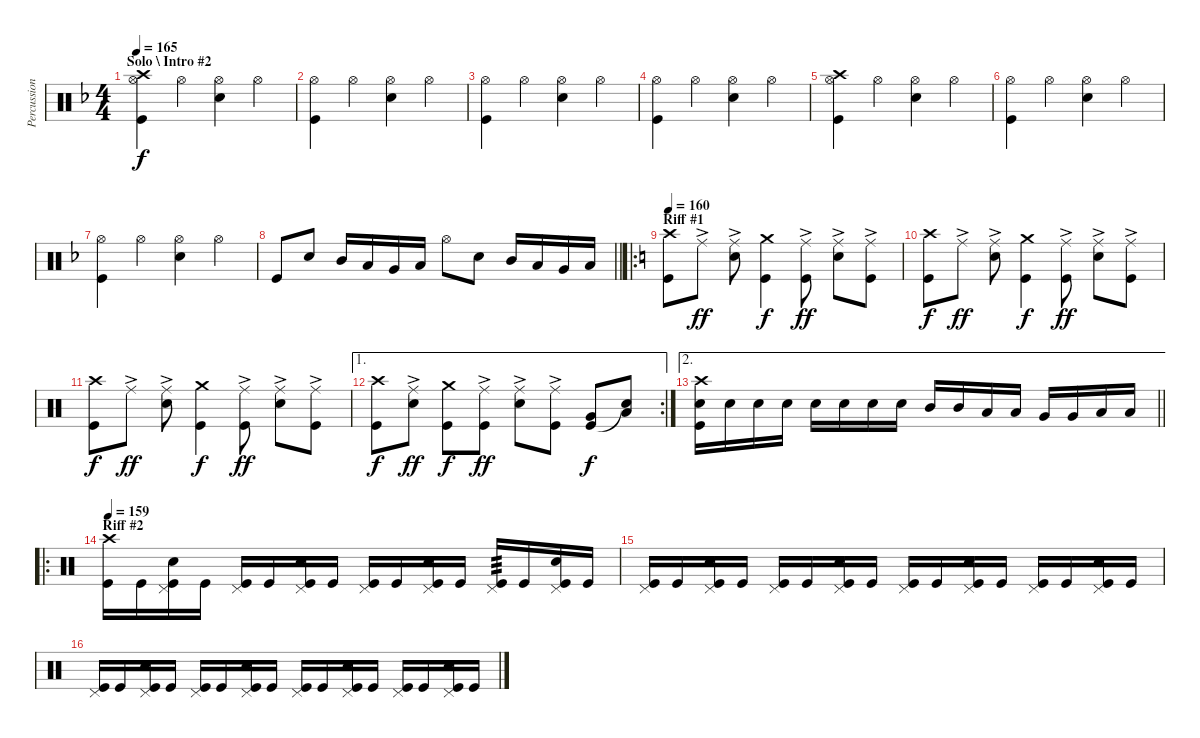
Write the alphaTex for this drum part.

\track ("Percussion" "Percussion") {instrument percussion}
\staff {score}
\articulation defaults
\ts (4 4)
\section ("" "Solo \\ Intro #2")
\tempo 165
\clef neutral
\ks f
("Crash high (hit)" "Hi-Hat (open)" "Kick (hit)").4{dy f} "Hi-Hat (open)".4 ("Hi-Hat (open)" "Electric Snare (hit)").4 "Hi-Hat (open)".4 |
("Hi-Hat (open)" "Kick (hit)").4 "Hi-Hat (open)".4 ("Hi-Hat (open)" "Electric Snare (hit)").4 "Hi-Hat (open)".4 |
("Hi-Hat (open)" "Kick (hit)").4 "Hi-Hat (open)".4 ("Hi-Hat (open)" "Electric Snare (hit)").4 "Hi-Hat (open)".4 |
("Hi-Hat (open)" "Kick (hit)").4 "Hi-Hat (open)".4 ("Hi-Hat (open)" "Electric Snare (hit)").4 "Hi-Hat (open)".4 |
("Crash high (hit)" "Hi-Hat (open)" "Kick (hit)").4 "Hi-Hat (open)".4 ("Hi-Hat (open)" "Electric Snare (hit)").4 "Hi-Hat (open)".4 |
("Hi-Hat (open)" "Kick (hit)").4 "Hi-Hat (open)".4 ("Hi-Hat (open)" "Electric Snare (hit)").4 "Hi-Hat (open)".4 |
("Hi-Hat (open)" "Kick (hit)").4 "Hi-Hat (open)".4 ("Hi-Hat (open)" "Electric Snare (hit)").4 "Hi-Hat (open)".4 |
\barLineRight lightlight "Kick (hit)".8 "Electric Snare (hit)".8 "Mid Tom (hit)".16 "Low Tom (hit)".16 "Very Low Tom (hit)".16 "Low Floor Tom (hit)".16 "Hi-Hat (open)".8 "Electric Snare (hit)".8 "Mid Tom (hit)".16 "Low Tom (hit)".16 "Very Low Tom (hit)".16 "Low Floor Tom (hit)".16
|
\ro
\section ("" "Riff #1")
\tempo 160
\ks c
("Crash high (hit)" "Kick (hit)").8 "Ride (middle)"{ac}.8{dy ff} ("Ride (middle)"{ac} "Electric Snare (hit)").8 ("Crash medium (hit)" "Kick (hit)").4{dy f} ("Ride (middle)"{ac} "Kick (hit)").8{dy ff} ("Ride (middle)"{ac} "Electric Snare (hit)").8 ("Ride (middle)"{ac} "Kick (hit)").8 |
("Crash high (hit)" "Kick (hit)").8{dy f} "Ride (middle)"{ac}.8{dy ff} ("Ride (middle)"{ac} "Electric Snare (hit)").8 ("Crash medium (hit)" "Kick (hit)").4{dy f} ("Ride (middle)"{ac} "Kick (hit)").8{dy ff} ("Ride (middle)"{ac} "Electric Snare (hit)").8 ("Ride (middle)"{ac} "Kick (hit)").8 |
("Crash high (hit)" "Kick (hit)").8{dy f} "Ride (middle)"{ac}.8{dy ff} ("Ride (middle)"{ac} "Electric Snare (hit)").8 ("Crash medium (hit)" "Kick (hit)").4{dy f} ("Ride (middle)"{ac} "Kick (hit)").8{dy ff} ("Ride (middle)"{ac} "Electric Snare (hit)").8 ("Ride (middle)"{ac} "Kick (hit)").8 |
\ae 1
\rc 2
("Crash high (hit)" "Kick (hit)").8{dy f} ("Ride (middle)"{ac} "Electric Snare (hit)").8{dy ff} ("Crash medium (hit)" "Kick (hit)").8{dy f} ("Ride (middle)"{ac} "Kick (hit)").8{dy ff} ("Ride (middle)"{ac} "Electric Snare (hit)").8 ("Ride (middle)"{ac} "Kick (hit)").8 ("Very Low Tom (hit)" "Kick (hit)").8{dy f} ("Low Floor Tom (hit)" "Snare (hit)"{t}).8 |
\ae 2
\barLineRight lightlight
("Crash high (hit)" "Electric Snare (hit)" "Kick (hit)").16 "Electric Snare (hit)".16 "Electric Snare (hit)".16 "Electric Snare (hit)".16 "Electric Snare (hit)".16 "Electric Snare (hit)".16 "Electric Snare (hit)".16 "Electric Snare (hit)".16 "Mid Tom (hit)".16 "Mid Tom (hit)".16 "Low Tom (hit)".16 "Low Tom (hit)".16 "Very Low Tom (hit)".16 "Very Low Tom (hit)".16 "Low Floor Tom (hit)".16 "Low Floor Tom (hit)".16 |
\ro
\section ("" "Riff #2")
\tempo 159
("Crash high (hit)" "Kick (hit)").16 "Kick (hit)".16 ("Pedal Hi-Hat (hit)" "Electric Snare (hit)" "Kick (hit)").16 "Kick (hit)".16 ("Pedal Hi-Hat (hit)" "Kick (hit)").16 "Kick (hit)".16 ("Pedal Hi-Hat (hit)" "Electric Snare (hit)" "Kick (hit)").16 "Kick (hit)".16 ("Pedal Hi-Hat (hit)" "Kick (hit)").16 "Kick (hit)".16 ("Pedal Hi-Hat (hit)" "Electric Snare (hit)" "Kick (hit)").16 "Kick (hit)".16 ("Pedal Hi-Hat (hit)" "Kick (hit)").16{tp 3} "Kick (hit)".16 ("Pedal Hi-Hat (hit)" "Electric Snare (hit)" "Kick (hit)").16 "Kick (hit)".16 |
("Pedal Hi-Hat (hit)" "Kick (hit)").16 "Kick (hit)".16 ("Pedal Hi-Hat (hit)" "Electric Snare (hit)" "Kick (hit)").16 "Kick (hit)".16 ("Pedal Hi-Hat (hit)" "Kick (hit)").16 "Kick (hit)".16 ("Pedal Hi-Hat (hit)" "Electric Snare (hit)" "Kick (hit)").16 "Kick (hit)".16 ("Pedal Hi-Hat (hit)" "Kick (hit)").16 "Kick (hit)".16 ("Pedal Hi-Hat (hit)" "Electric Snare (hit)" "Kick (hit)").16 "Kick (hit)".16 ("Pedal Hi-Hat (hit)" "Kick (hit)").16 "Kick (hit)".16 ("Pedal Hi-Hat (hit)" "Electric Snare (hit)" "Kick (hit)").16 "Kick (hit)".16 |
("Pedal Hi-Hat (hit)" "Kick (hit)").16 "Kick (hit)".16 ("Pedal Hi-Hat (hit)" "Electric Snare (hit)" "Kick (hit)").16 "Kick (hit)".16 ("Pedal Hi-Hat (hit)" "Kick (hit)").16 "Kick (hit)".16 ("Pedal Hi-Hat (hit)" "Electric Snare (hit)" "Kick (hit)").16 "Kick (hit)".16 ("Pedal Hi-Hat (hit)" "Kick (hit)").16 "Kick (hit)".16 ("Pedal Hi-Hat (hit)" "Electric Snare (hit)" "Kick (hit)").16 "Kick (hit)".16 ("Pedal Hi-Hat (hit)" "Kick (hit)").16 "Kick (hit)".16 ("Pedal Hi-Hat (hit)" "Electric Snare (hit)" "Kick (hit)").16 "Kick (hit)".16
